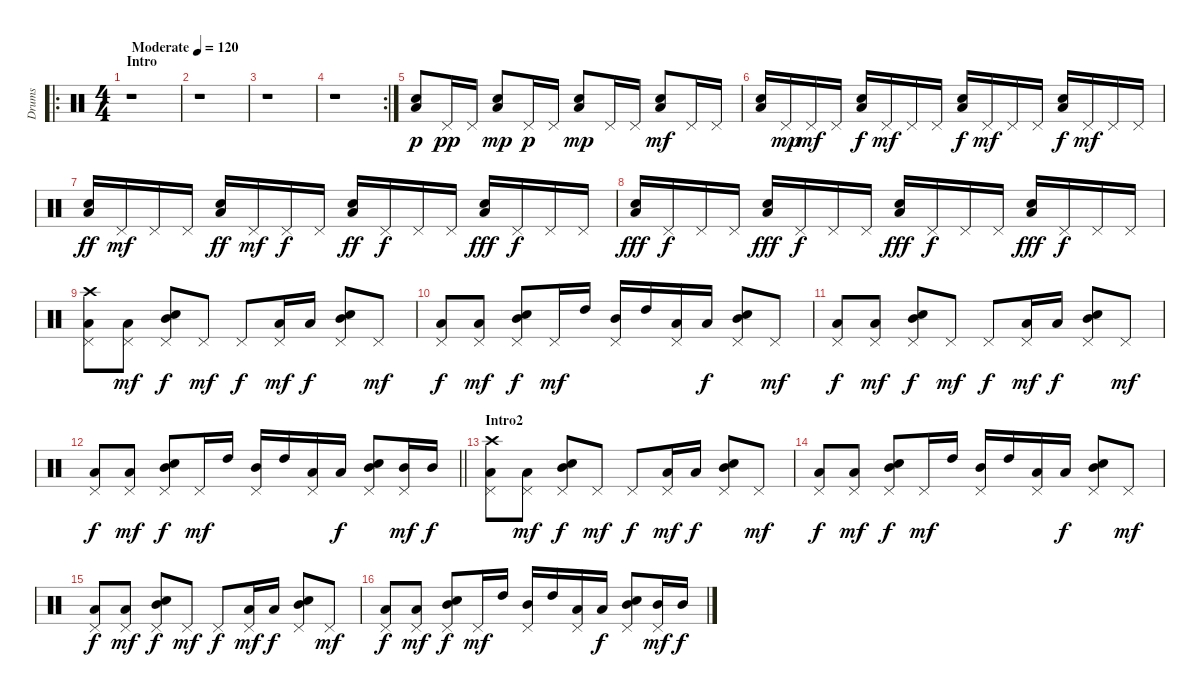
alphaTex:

\track ("Drums" "Drums") {instrument percussion}
\staff {score}
\articulation defaults
\ro
\ts (4 4)
\section ("" "Intro")
\tempo (120 "Moderate")
\clef neutral
\ks c
r.1{dy p} |
r.1 |
r.1 |
\rc 2
r.1 |
("Low Tom (hit)" "Electric Snare (hit)").8 "Pedal Hi-Hat (hit)".16{dy pp} "Pedal Hi-Hat (hit)".16 ("Low Tom (hit)" "Electric Snare (hit)").8{dy mp} "Pedal Hi-Hat (hit)".16{dy p} "Pedal Hi-Hat (hit)".16 ("Low Tom (hit)" "Electric Snare (hit)").8{dy mp} "Pedal Hi-Hat (hit)".16 "Pedal Hi-Hat (hit)".16 ("Low Tom (hit)" "Electric Snare (hit)").8{dy mf} "Pedal Hi-Hat (hit)".16 "Pedal Hi-Hat (hit)".16 |
("Low Tom (hit)" "Electric Snare (hit)").16 "Pedal Hi-Hat (hit)".16{dy mp} "Pedal Hi-Hat (hit)".16{dy mf} "Pedal Hi-Hat (hit)".16 ("Low Tom (hit)" "Electric Snare (hit)").16{dy f} "Pedal Hi-Hat (hit)".16{dy mf} "Pedal Hi-Hat (hit)".16 "Pedal Hi-Hat (hit)".16 ("Low Tom (hit)" "Electric Snare (hit)").16{dy f} "Pedal Hi-Hat (hit)".16{dy mf} "Pedal Hi-Hat (hit)".16 "Pedal Hi-Hat (hit)".16 ("Low Tom (hit)" "Electric Snare (hit)").16{dy f} "Pedal Hi-Hat (hit)".16{dy mf} "Pedal Hi-Hat (hit)".16 "Pedal Hi-Hat (hit)".16 |
("Low Tom (hit)" "Electric Snare (hit)").16{dy ff} "Pedal Hi-Hat (hit)".16{dy mf} "Pedal Hi-Hat (hit)".16 "Pedal Hi-Hat (hit)".16 ("Low Tom (hit)" "Electric Snare (hit)").16{dy ff} "Pedal Hi-Hat (hit)".16{dy mf} "Pedal Hi-Hat (hit)".16{dy f} "Pedal Hi-Hat (hit)".16 ("Low Tom (hit)" "Electric Snare (hit)").16{dy ff} "Pedal Hi-Hat (hit)".16{dy f} "Pedal Hi-Hat (hit)".16 "Pedal Hi-Hat (hit)".16 ("Low Tom (hit)" "Electric Snare (hit)").16{dy fff} "Pedal Hi-Hat (hit)".16{dy f} "Pedal Hi-Hat (hit)".16 "Pedal Hi-Hat (hit)".16 |
("Low Tom (hit)" "Electric Snare (hit)").16{dy fff} "Pedal Hi-Hat (hit)".16{dy f} "Pedal Hi-Hat (hit)".16 "Pedal Hi-Hat (hit)".16 ("Low Tom (hit)" "Electric Snare (hit)").16{dy fff} "Pedal Hi-Hat (hit)".16{dy f} "Pedal Hi-Hat (hit)".16 "Pedal Hi-Hat (hit)".16 ("Low Tom (hit)" "Electric Snare (hit)").16{dy fff} "Pedal Hi-Hat (hit)".16{dy f} "Pedal Hi-Hat (hit)".16 "Pedal Hi-Hat (hit)".16 ("Low Tom (hit)" "Electric Snare (hit)").16{dy fff} "Pedal Hi-Hat (hit)".16{dy f} "Pedal Hi-Hat (hit)".16 "Pedal Hi-Hat (hit)".16 |
("Crash high (hit)" "Pedal Hi-Hat (hit)" "Low Tom (hit)").8 ("Pedal Hi-Hat (hit)" "Low Tom (hit)").8{dy mf} ("Pedal Hi-Hat (hit)" "Mid Tom (hit)" "Electric Snare (hit)").8{dy f} "Pedal Hi-Hat (hit)".8{dy mf} "Pedal Hi-Hat (hit)".8{dy f} ("Pedal Hi-Hat (hit)" "Low Tom (hit)").16{dy mf} "Low Tom (hit)".16{dy f} ("Pedal Hi-Hat (hit)" "Mid Tom (hit)" "Electric Snare (hit)").8 "Pedal Hi-Hat (hit)".8{dy mf} |
("Pedal Hi-Hat (hit)" "Low Tom (hit)").8{dy f} ("Pedal Hi-Hat (hit)" "Low Tom (hit)").8{dy mf} ("Pedal Hi-Hat (hit)" "Mid Tom (hit)" "Electric Snare (hit)").8{dy f} "Pedal Hi-Hat (hit)".16{dy mf} "High Tom (hit)".16 ("Pedal Hi-Hat (hit)" "Mid Tom (hit)").16 "High Tom (hit)".16 ("Pedal Hi-Hat (hit)" "Low Tom (hit)").16 "Low Tom (hit)".16{dy f} ("Pedal Hi-Hat (hit)" "Mid Tom (hit)" "Electric Snare (hit)").8 "Pedal Hi-Hat (hit)".8{dy mf} |
("Pedal Hi-Hat (hit)" "Low Tom (hit)").8{dy f} ("Pedal Hi-Hat (hit)" "Low Tom (hit)").8{dy mf} ("Pedal Hi-Hat (hit)" "Mid Tom (hit)" "Electric Snare (hit)").8{dy f} "Pedal Hi-Hat (hit)".8{dy mf} "Pedal Hi-Hat (hit)".8{dy f} ("Pedal Hi-Hat (hit)" "Low Tom (hit)").16{dy mf} "Low Tom (hit)".16{dy f} ("Pedal Hi-Hat (hit)" "Mid Tom (hit)" "Electric Snare (hit)").8 "Pedal Hi-Hat (hit)".8{dy mf} |
\barLineRight lightlight
("Pedal Hi-Hat (hit)" "Low Tom (hit)").8{dy f} ("Pedal Hi-Hat (hit)" "Low Tom (hit)").8{dy mf} ("Pedal Hi-Hat (hit)" "Mid Tom (hit)" "Electric Snare (hit)").8{dy f} "Pedal Hi-Hat (hit)".16{dy mf} "High Tom (hit)".16 ("Pedal Hi-Hat (hit)" "Mid Tom (hit)").16 "High Tom (hit)".16 ("Pedal Hi-Hat (hit)" "Low Tom (hit)").16 "Low Tom (hit)".16{dy f} ("Pedal Hi-Hat (hit)" "Mid Tom (hit)" "Electric Snare (hit)").8 ("Pedal Hi-Hat (hit)" "Mid Tom (hit)").16{dy mf} "Mid Tom (hit)".16{dy f} |
\section ("" "Intro2")
("Crash high (hit)" "Pedal Hi-Hat (hit)" "Low Tom (hit)").8 ("Pedal Hi-Hat (hit)" "Low Tom (hit)").8{dy mf} ("Pedal Hi-Hat (hit)" "Mid Tom (hit)" "Electric Snare (hit)").8{dy f} "Pedal Hi-Hat (hit)".8{dy mf} "Pedal Hi-Hat (hit)".8{dy f} ("Pedal Hi-Hat (hit)" "Low Tom (hit)").16{dy mf} "Low Tom (hit)".16{dy f} ("Pedal Hi-Hat (hit)" "Mid Tom (hit)" "Electric Snare (hit)").8 "Pedal Hi-Hat (hit)".8{dy mf} |
("Pedal Hi-Hat (hit)" "Low Tom (hit)").8{dy f} ("Pedal Hi-Hat (hit)" "Low Tom (hit)").8{dy mf} ("Pedal Hi-Hat (hit)" "Mid Tom (hit)" "Electric Snare (hit)").8{dy f} "Pedal Hi-Hat (hit)".16{dy mf} "High Tom (hit)".16 ("Pedal Hi-Hat (hit)" "Mid Tom (hit)").16 "High Tom (hit)".16 ("Pedal Hi-Hat (hit)" "Low Tom (hit)").16 "Low Tom (hit)".16{dy f} ("Pedal Hi-Hat (hit)" "Mid Tom (hit)" "Electric Snare (hit)").8 "Pedal Hi-Hat (hit)".8{dy mf} |
("Pedal Hi-Hat (hit)" "Low Tom (hit)").8{dy f} ("Pedal Hi-Hat (hit)" "Low Tom (hit)").8{dy mf} ("Pedal Hi-Hat (hit)" "Mid Tom (hit)" "Electric Snare (hit)").8{dy f} "Pedal Hi-Hat (hit)".8{dy mf} "Pedal Hi-Hat (hit)".8{dy f} ("Pedal Hi-Hat (hit)" "Low Tom (hit)").16{dy mf} "Low Tom (hit)".16{dy f} ("Pedal Hi-Hat (hit)" "Mid Tom (hit)" "Electric Snare (hit)").8 "Pedal Hi-Hat (hit)".8{dy mf} |
("Pedal Hi-Hat (hit)" "Low Tom (hit)").8{dy f} ("Pedal Hi-Hat (hit)" "Low Tom (hit)").8{dy mf} ("Pedal Hi-Hat (hit)" "Mid Tom (hit)" "Electric Snare (hit)").8{dy f} "Pedal Hi-Hat (hit)".16{dy mf} "High Tom (hit)".16 ("Pedal Hi-Hat (hit)" "Mid Tom (hit)").16 "High Tom (hit)".16 ("Pedal Hi-Hat (hit)" "Low Tom (hit)").16 "Low Tom (hit)".16{dy f} ("Pedal Hi-Hat (hit)" "Mid Tom (hit)" "Electric Snare (hit)").8 ("Pedal Hi-Hat (hit)" "Mid Tom (hit)").16{dy mf} "Mid Tom (hit)".16{dy f}
